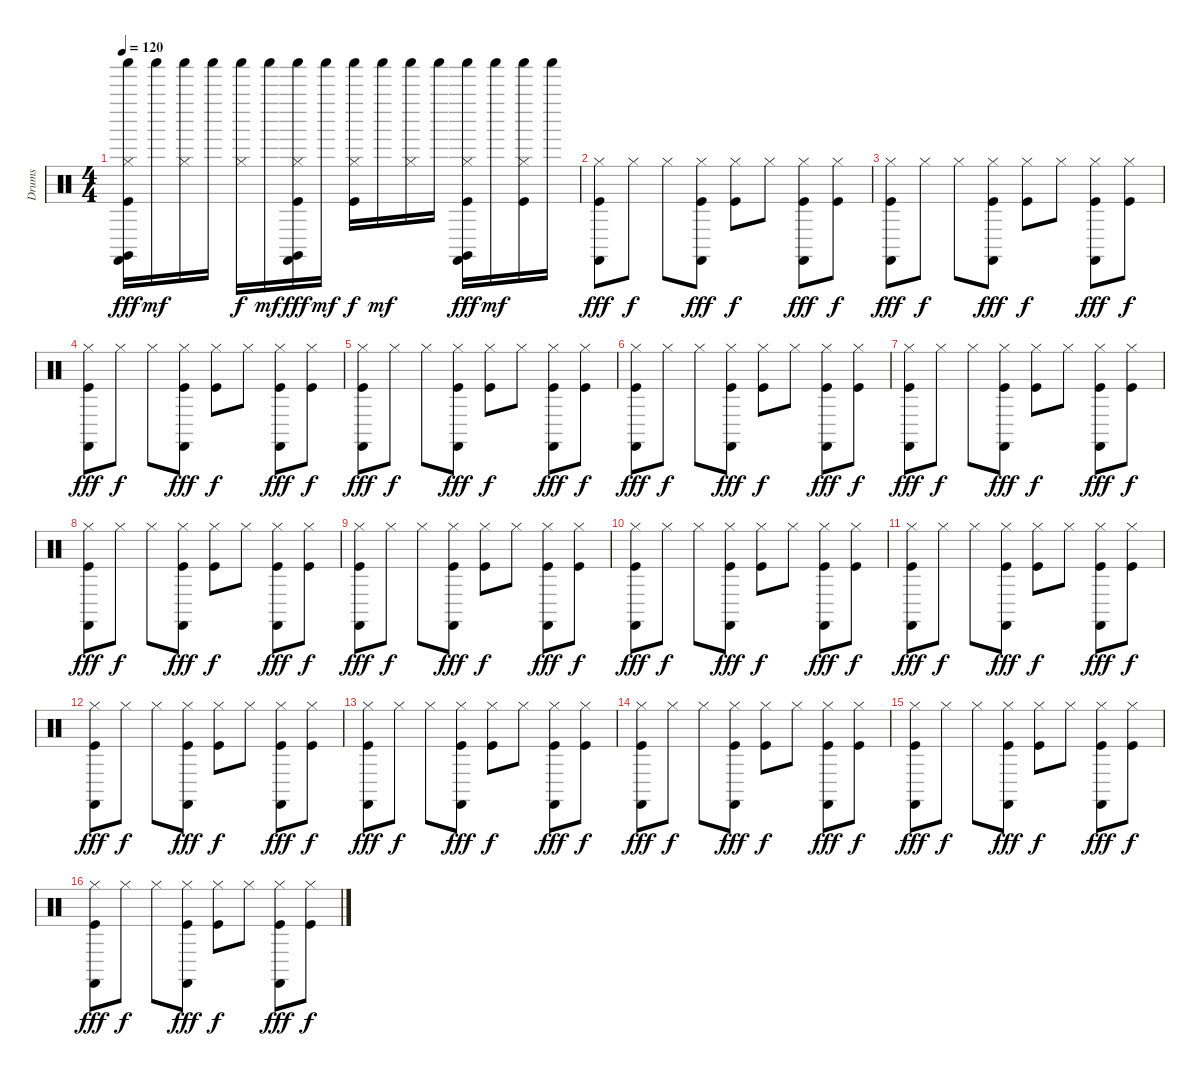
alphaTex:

\track ("Drums" "Drums") {instrument percussion}
\staff {score}
\articulation defaults
\ts (4 4)
\tempo 120
\clef neutral
\ks c
("Shaker (hit)" "Hi-Hat (closed)" "Castanets (hit)" "Claves (hit)" "Kick (hit)").16{dy fff} "Shaker (hit)".16{dy mf} ("Shaker (hit)" "Hi-Hat (closed)").16 "Shaker (hit)".16 ("Shaker (hit)" "Hi-Hat (closed)").16{dy f} "Shaker (hit)".16{dy mf} ("Shaker (hit)" "Hi-Hat (closed)" "Castanets (hit)" "Claves (hit)" "Kick (hit)").16{dy fff} "Shaker (hit)".16{dy mf} ("Shaker (hit)" "Hi-Hat (closed)" "Kick (hit)").16{dy f} "Shaker (hit)".16{dy mf} ("Shaker (hit)" "Hi-Hat (closed)").16 "Shaker (hit)".16 ("Shaker (hit)" "Hi-Hat (closed)" "Castanets (hit)" "Claves (hit)" "Kick (hit)").16{dy fff} "Shaker (hit)".16{dy mf} ("Shaker (hit)" "Hi-Hat (closed)" "Kick (hit)").16 "Shaker (hit)".16 |
("Hi-Hat (closed)" "Castanets (hit)" "Kick (hit)").8{dy fff} "Hi-Hat (closed)".8{dy f} "Hi-Hat (closed)".8 ("Hi-Hat (closed)" "Castanets (hit)" "Kick (hit)").8{dy fff} ("Hi-Hat (closed)" "Kick (hit)").8{dy f} "Hi-Hat (closed)".8 ("Hi-Hat (closed)" "Castanets (hit)" "Kick (hit)").8{dy fff} ("Hi-Hat (closed)" "Kick (hit)").8{dy f} |
("Hi-Hat (closed)" "Castanets (hit)" "Kick (hit)").8{dy fff} "Hi-Hat (closed)".8{dy f} "Hi-Hat (closed)".8 ("Hi-Hat (closed)" "Castanets (hit)" "Kick (hit)").8{dy fff} ("Hi-Hat (closed)" "Kick (hit)").8{dy f} "Hi-Hat (closed)".8 ("Hi-Hat (closed)" "Castanets (hit)" "Kick (hit)").8{dy fff} ("Hi-Hat (closed)" "Kick (hit)").8{dy f} |
("Hi-Hat (closed)" "Castanets (hit)" "Kick (hit)").8{dy fff} "Hi-Hat (closed)".8{dy f} "Hi-Hat (closed)".8 ("Hi-Hat (closed)" "Castanets (hit)" "Kick (hit)").8{dy fff} ("Hi-Hat (closed)" "Kick (hit)").8{dy f} "Hi-Hat (closed)".8 ("Hi-Hat (closed)" "Castanets (hit)" "Kick (hit)").8{dy fff} ("Hi-Hat (closed)" "Kick (hit)").8{dy f} |
("Hi-Hat (closed)" "Castanets (hit)" "Kick (hit)").8{dy fff} "Hi-Hat (closed)".8{dy f} "Hi-Hat (closed)".8 ("Hi-Hat (closed)" "Castanets (hit)" "Kick (hit)").8{dy fff} ("Hi-Hat (closed)" "Kick (hit)").8{dy f} "Hi-Hat (closed)".8 ("Hi-Hat (closed)" "Castanets (hit)" "Kick (hit)").8{dy fff} ("Hi-Hat (closed)" "Kick (hit)").8{dy f} |
("Hi-Hat (closed)" "Castanets (hit)" "Kick (hit)").8{dy fff} "Hi-Hat (closed)".8{dy f} "Hi-Hat (closed)".8 ("Hi-Hat (closed)" "Castanets (hit)" "Kick (hit)").8{dy fff} ("Hi-Hat (closed)" "Kick (hit)").8{dy f} "Hi-Hat (closed)".8 ("Hi-Hat (closed)" "Castanets (hit)" "Kick (hit)").8{dy fff} ("Hi-Hat (closed)" "Kick (hit)").8{dy f} |
("Hi-Hat (closed)" "Castanets (hit)" "Kick (hit)").8{dy fff} "Hi-Hat (closed)".8{dy f} "Hi-Hat (closed)".8 ("Hi-Hat (closed)" "Castanets (hit)" "Kick (hit)").8{dy fff} ("Hi-Hat (closed)" "Kick (hit)").8{dy f} "Hi-Hat (closed)".8 ("Hi-Hat (closed)" "Castanets (hit)" "Kick (hit)").8{dy fff} ("Hi-Hat (closed)" "Kick (hit)").8{dy f} |
("Hi-Hat (closed)" "Castanets (hit)" "Kick (hit)").8{dy fff} "Hi-Hat (closed)".8{dy f} "Hi-Hat (closed)".8 ("Hi-Hat (closed)" "Castanets (hit)" "Kick (hit)").8{dy fff} ("Hi-Hat (closed)" "Kick (hit)").8{dy f} "Hi-Hat (closed)".8 ("Hi-Hat (closed)" "Castanets (hit)" "Kick (hit)").8{dy fff} ("Hi-Hat (closed)" "Kick (hit)").8{dy f} |
("Hi-Hat (closed)" "Castanets (hit)" "Kick (hit)").8{dy fff} "Hi-Hat (closed)".8{dy f} "Hi-Hat (closed)".8 ("Hi-Hat (closed)" "Castanets (hit)" "Kick (hit)").8{dy fff} ("Hi-Hat (closed)" "Kick (hit)").8{dy f} "Hi-Hat (closed)".8 ("Hi-Hat (closed)" "Castanets (hit)" "Kick (hit)").8{dy fff} ("Hi-Hat (closed)" "Kick (hit)").8{dy f} |
("Hi-Hat (closed)" "Castanets (hit)" "Kick (hit)").8{dy fff} "Hi-Hat (closed)".8{dy f} "Hi-Hat (closed)".8 ("Hi-Hat (closed)" "Castanets (hit)" "Kick (hit)").8{dy fff} ("Hi-Hat (closed)" "Kick (hit)").8{dy f} "Hi-Hat (closed)".8 ("Hi-Hat (closed)" "Castanets (hit)" "Kick (hit)").8{dy fff} ("Hi-Hat (closed)" "Kick (hit)").8{dy f} |
("Hi-Hat (closed)" "Castanets (hit)" "Kick (hit)").8{dy fff} "Hi-Hat (closed)".8{dy f} "Hi-Hat (closed)".8 ("Hi-Hat (closed)" "Castanets (hit)" "Kick (hit)").8{dy fff} ("Hi-Hat (closed)" "Kick (hit)").8{dy f} "Hi-Hat (closed)".8 ("Hi-Hat (closed)" "Castanets (hit)" "Kick (hit)").8{dy fff} ("Hi-Hat (closed)" "Kick (hit)").8{dy f} |
("Hi-Hat (closed)" "Castanets (hit)" "Kick (hit)").8{dy fff} "Hi-Hat (closed)".8{dy f} "Hi-Hat (closed)".8 ("Hi-Hat (closed)" "Castanets (hit)" "Kick (hit)").8{dy fff} ("Hi-Hat (closed)" "Kick (hit)").8{dy f} "Hi-Hat (closed)".8 ("Hi-Hat (closed)" "Castanets (hit)" "Kick (hit)").8{dy fff} ("Hi-Hat (closed)" "Kick (hit)").8{dy f} |
("Hi-Hat (closed)" "Castanets (hit)" "Kick (hit)").8{dy fff} "Hi-Hat (closed)".8{dy f} "Hi-Hat (closed)".8 ("Hi-Hat (closed)" "Castanets (hit)" "Kick (hit)").8{dy fff} ("Hi-Hat (closed)" "Kick (hit)").8{dy f} "Hi-Hat (closed)".8 ("Hi-Hat (closed)" "Castanets (hit)" "Kick (hit)").8{dy fff} ("Hi-Hat (closed)" "Kick (hit)").8{dy f} |
("Hi-Hat (closed)" "Castanets (hit)" "Kick (hit)").8{dy fff} "Hi-Hat (closed)".8{dy f} "Hi-Hat (closed)".8 ("Hi-Hat (closed)" "Castanets (hit)" "Kick (hit)").8{dy fff} ("Hi-Hat (closed)" "Kick (hit)").8{dy f} "Hi-Hat (closed)".8 ("Hi-Hat (closed)" "Castanets (hit)" "Kick (hit)").8{dy fff} ("Hi-Hat (closed)" "Kick (hit)").8{dy f} |
("Hi-Hat (closed)" "Castanets (hit)" "Kick (hit)").8{dy fff} "Hi-Hat (closed)".8{dy f} "Hi-Hat (closed)".8 ("Hi-Hat (closed)" "Castanets (hit)" "Kick (hit)").8{dy fff} ("Hi-Hat (closed)" "Kick (hit)").8{dy f} "Hi-Hat (closed)".8 ("Hi-Hat (closed)" "Castanets (hit)" "Kick (hit)").8{dy fff} ("Hi-Hat (closed)" "Kick (hit)").8{dy f} |
("Hi-Hat (closed)" "Castanets (hit)" "Kick (hit)").8{dy fff} "Hi-Hat (closed)".8{dy f} "Hi-Hat (closed)".8 ("Hi-Hat (closed)" "Castanets (hit)" "Kick (hit)").8{dy fff} ("Hi-Hat (closed)" "Kick (hit)").8{dy f} "Hi-Hat (closed)".8 ("Hi-Hat (closed)" "Castanets (hit)" "Kick (hit)").8{dy fff} ("Hi-Hat (closed)" "Kick (hit)").8{dy f}
